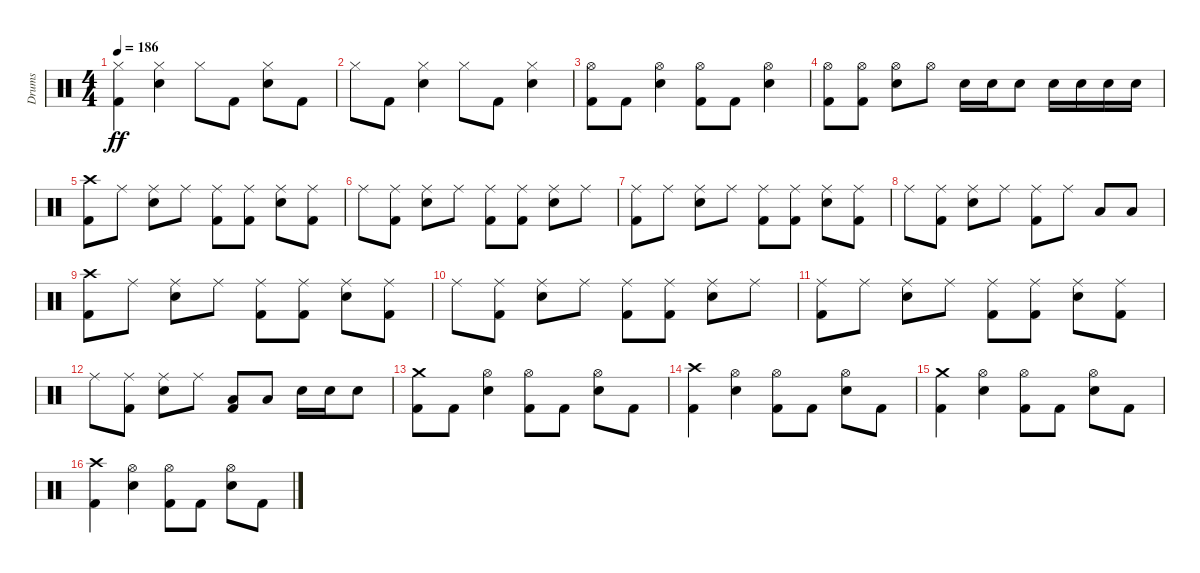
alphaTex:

\track ("Drums" "Drums") {instrument percussion}
\staff {score}
\articulation defaults
\ts (4 4)
\tempo 186
\clef neutral
\ks c
("Kick (hit) 2" "Hi-Hat (closed)").4{dy ff} ("Snare (hit) 2" "Hi-Hat (closed)").4 "Hi-Hat (closed)".8 "Kick (hit) 2".8 ("Snare (hit) 2" "Hi-Hat (closed)").8 "Kick (hit) 2".8 |
"Hi-Hat (closed)".8 "Kick (hit) 2".8 ("Snare (hit) 2" "Hi-Hat (closed)").4 "Hi-Hat (closed)".8 "Kick (hit) 2".8 ("Snare (hit) 2" "Hi-Hat (closed)").4 |
("Kick (hit) 2" "Hi-Hat (open)").8 "Kick (hit) 2".8 ("Snare (hit) 2" "Hi-Hat (open)").4 ("Kick (hit) 2" "Hi-Hat (open)").8 "Kick (hit) 2".8 ("Snare (hit) 2" "Hi-Hat (open)").4 |
("Kick (hit) 2" "Hi-Hat (open)").8 ("Kick (hit) 2" "Hi-Hat (open)").8 ("Snare (hit) 2" "Hi-Hat (open)").8 "Hi-Hat (open)".8 "Snare (hit) 2".16 "Snare (hit) 2".16 "Snare (hit) 2".8 "Snare (hit) 2".16 "Snare (hit) 2".16 "Snare (hit) 2".16 "Snare (hit) 2".16 |
("Kick (hit) 2" "Crash high (hit)").8 "Ride (middle)".8 ("Snare (hit) 2" "Ride (middle)").8 "Ride (middle)".8 ("Kick (hit) 2" "Ride (middle)").8 ("Kick (hit) 2" "Ride (middle)").8 ("Snare (hit) 2" "Ride (middle)").8 ("Kick (hit) 2" "Ride (middle)").8 |
"Ride (middle)".8 ("Kick (hit) 2" "Ride (middle)").8 ("Snare (hit) 2" "Ride (middle)").8 "Ride (middle)".8 ("Kick (hit) 2" "Ride (middle)").8 ("Kick (hit) 2" "Ride (middle)").8 ("Snare (hit) 2" "Ride (middle)").8 "Ride (middle)".8 |
("Kick (hit) 2" "Ride (middle)").8 "Ride (middle)".8 ("Snare (hit) 2" "Ride (middle)").8 "Ride (middle)".8 ("Kick (hit) 2" "Ride (middle)").8 ("Kick (hit) 2" "Ride (middle)").8 ("Snare (hit) 2" "Ride (middle)").8 ("Kick (hit) 2" "Ride (middle)").8 |
"Ride (middle)".8 ("Kick (hit) 2" "Ride (middle)").8 ("Snare (hit) 2" "Ride (middle)").8 "Ride (middle)".8 ("Kick (hit) 2" "Ride (middle)").8 "Ride (middle)".8 "Low Tom (hit)".8 "Low Tom (hit)".8 |
("Kick (hit) 2" "Crash high (hit)").8 "Ride (middle)".8 ("Snare (hit) 2" "Ride (middle)").8 "Ride (middle)".8 ("Kick (hit) 2" "Ride (middle)").8 ("Kick (hit) 2" "Ride (middle)").8 ("Snare (hit) 2" "Ride (middle)").8 ("Kick (hit) 2" "Ride (middle)").8 |
"Ride (middle)".8 ("Kick (hit) 2" "Ride (middle)").8 ("Snare (hit) 2" "Ride (middle)").8 "Ride (middle)".8 ("Kick (hit) 2" "Ride (middle)").8 ("Kick (hit) 2" "Ride (middle)").8 ("Snare (hit) 2" "Ride (middle)").8 "Ride (middle)".8 |
("Kick (hit) 2" "Ride (middle)").8 "Ride (middle)".8 ("Snare (hit) 2" "Ride (middle)").8 "Ride (middle)".8 ("Kick (hit) 2" "Ride (middle)").8 ("Kick (hit) 2" "Ride (middle)").8 ("Snare (hit) 2" "Ride (middle)").8 ("Kick (hit) 2" "Ride (middle)").8 |
"Ride (middle)".8 ("Kick (hit) 2" "Ride (middle)").8 ("Snare (hit) 2" "Ride (middle)").8 "Ride (middle)".8 ("Kick (hit) 2" "Low Tom (hit)").8 "Low Tom (hit)".8 "Snare (hit) 2".16 "Snare (hit) 2".16 "Snare (hit) 2".8 |
("Kick (hit) 2" "Crash medium (hit)").8 "Kick (hit) 2".8 ("Snare (hit) 2" "Hi-Hat (open)").4 ("Kick (hit) 2" "Hi-Hat (open)").8 "Kick (hit) 2".8 ("Snare (hit) 2" "Hi-Hat (open)").8 "Kick (hit) 2".8 |
("Kick (hit) 2" "Crash high (hit)").4 ("Snare (hit) 2" "Hi-Hat (open)").4 ("Kick (hit) 2" "Hi-Hat (open)").8 "Kick (hit) 2".8 ("Snare (hit) 2" "Hi-Hat (open)").8 "Kick (hit) 2".8 |
("Kick (hit) 2" "Crash medium (hit)").4 ("Snare (hit) 2" "Hi-Hat (open)").4 ("Kick (hit) 2" "Hi-Hat (open)").8 "Kick (hit) 2".8 ("Snare (hit) 2" "Hi-Hat (open)").8 "Kick (hit) 2".8 |
("Kick (hit) 2" "Crash high (hit)").4 ("Snare (hit) 2" "Hi-Hat (open)").4 ("Kick (hit) 2" "Hi-Hat (open)").8 "Kick (hit) 2".8 ("Snare (hit) 2" "Hi-Hat (open)").8 "Kick (hit) 2".8
